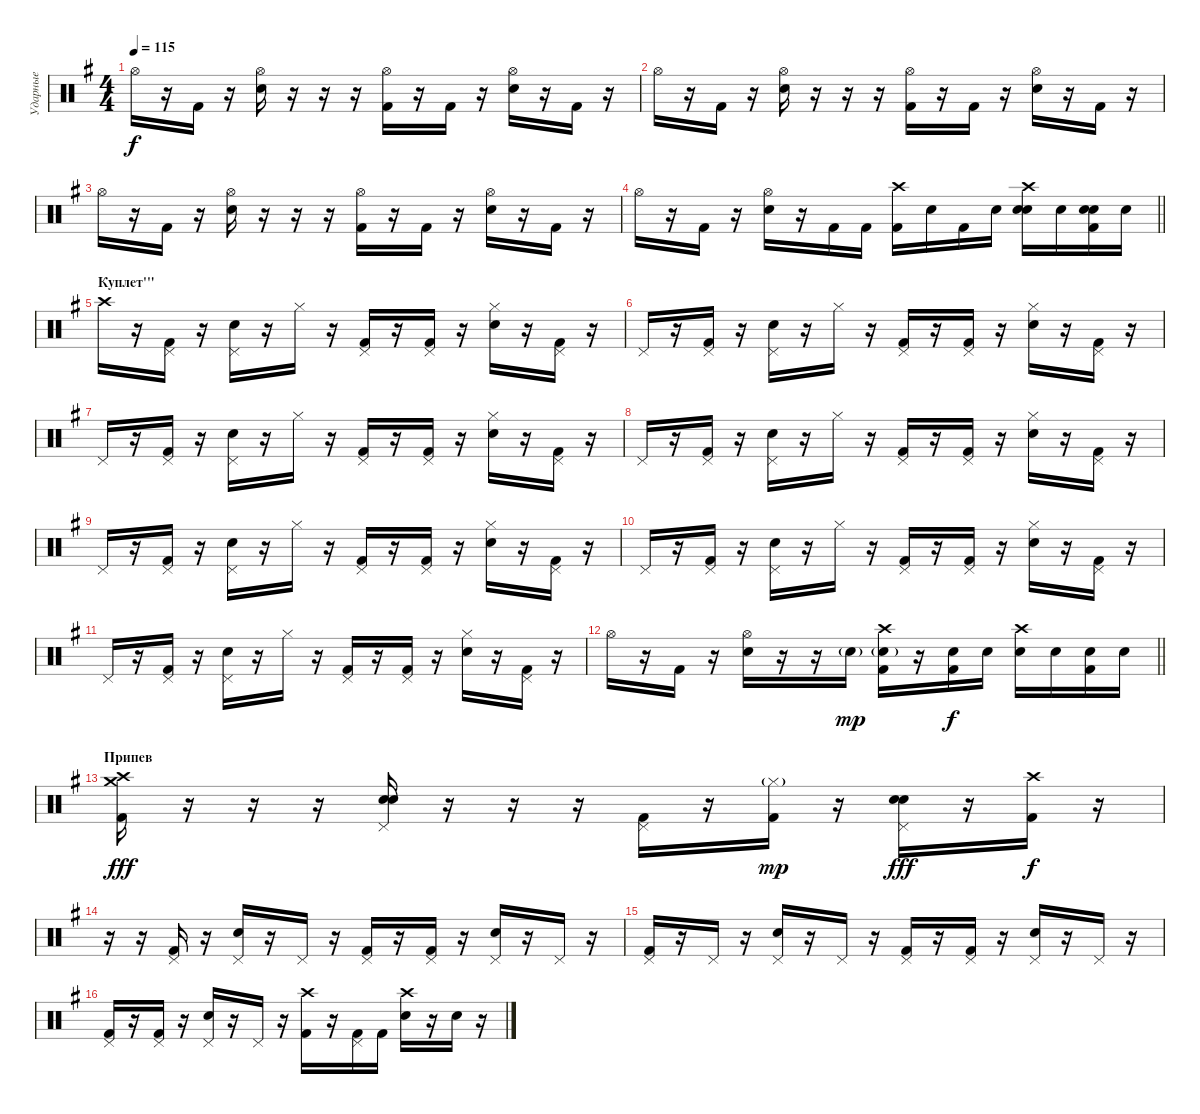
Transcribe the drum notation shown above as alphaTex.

\track ("Ударные" "Ударные") {instrument percussion}
\staff {score}
\articulation defaults
\ts (4 4)
\tempo 115
\clef neutral
\ks g "Hi-Hat (open)".16{dy f}
r.16 "Kick (hit) 2".16 r.16 ("Hi-Hat (open)" "Electric Snare (hit)").16 r.16 r.16 r.16 ("Hi-Hat (open)" "Kick (hit) 2").16 r.16 "Kick (hit) 2".16 r.16 ("Hi-Hat (open)" "Electric Snare (hit)").16 r.16 "Kick (hit) 2".16 r.16 |
"Hi-Hat (open)".16 r.16 "Kick (hit) 2".16 r.16 ("Hi-Hat (open)" "Electric Snare (hit)").16 r.16 r.16 r.16 ("Hi-Hat (open)" "Kick (hit) 2").16 r.16 "Kick (hit) 2".16 r.16 ("Hi-Hat (open)" "Electric Snare (hit)").16 r.16 "Kick (hit) 2".16 r.16 |
"Hi-Hat (open)".16 r.16 "Kick (hit) 2".16 r.16 ("Hi-Hat (open)" "Electric Snare (hit)").16 r.16 r.16 r.16 ("Hi-Hat (open)" "Kick (hit) 2").16 r.16 "Kick (hit) 2".16 r.16 ("Hi-Hat (open)" "Electric Snare (hit)").16 r.16 "Kick (hit) 2".16 r.16 |
\barLineRight lightlight "Hi-Hat (open)".16
r.16 "Kick (hit) 2".16 r.16 ("Hi-Hat (open)" "Electric Snare (hit)").16 r.16 "Kick (hit) 2".16 "Kick (hit) 2".16 ("Crash high (hit)" "Kick (hit) 2").16 "Electric Snare (hit)".16 "Kick (hit) 2".16 "Electric Snare (hit)".16 ("Crash high (hit)" "Electric Snare (hit)" "Electric Snare (hit)").16 "Electric Snare (hit)".16 ("Electric Snare (hit)" "Electric Snare (hit)" "Kick (hit) 2").16 "Electric Snare (hit)".16 |
\section ("" "Куплет'''")
"Crash high (hit)".16{volume 16 balance 8} r.16 ("Pedal Hi-Hat (hit)" "Kick (hit) 2").16 r.16 ("Pedal Hi-Hat (hit)" "Electric Snare (hit)").16 r.16 "Hi-Hat (closed)".16 r.16 ("Pedal Hi-Hat (hit)" "Kick (hit) 2").16 r.16 ("Pedal Hi-Hat (hit)" "Kick (hit) 2").16 r.16 ("Hi-Hat (closed)" "Electric Snare (hit)").16 r.16 ("Pedal Hi-Hat (hit)" "Kick (hit) 2").16 r.16 |
"Pedal Hi-Hat (hit)".16 r.16 ("Pedal Hi-Hat (hit)" "Kick (hit) 2").16 r.16 ("Pedal Hi-Hat (hit)" "Electric Snare (hit)").16 r.16 "Hi-Hat (closed)".16 r.16 ("Pedal Hi-Hat (hit)" "Kick (hit) 2").16 r.16 ("Pedal Hi-Hat (hit)" "Kick (hit) 2").16 r.16 ("Hi-Hat (closed)" "Electric Snare (hit)").16 r.16 ("Pedal Hi-Hat (hit)" "Kick (hit) 2").16 r.16 |
"Pedal Hi-Hat (hit)".16 r.16 ("Pedal Hi-Hat (hit)" "Kick (hit) 2").16 r.16 ("Pedal Hi-Hat (hit)" "Electric Snare (hit)").16 r.16 "Hi-Hat (closed)".16 r.16 ("Pedal Hi-Hat (hit)" "Kick (hit) 2").16 r.16 ("Pedal Hi-Hat (hit)" "Kick (hit) 2").16 r.16 ("Hi-Hat (closed)" "Electric Snare (hit)").16 r.16 ("Pedal Hi-Hat (hit)" "Kick (hit) 2").16 r.16 |
"Pedal Hi-Hat (hit)".16 r.16 ("Pedal Hi-Hat (hit)" "Kick (hit) 2").16 r.16 ("Pedal Hi-Hat (hit)" "Electric Snare (hit)").16 r.16 "Hi-Hat (closed)".16 r.16 ("Pedal Hi-Hat (hit)" "Kick (hit) 2").16 r.16 ("Pedal Hi-Hat (hit)" "Kick (hit) 2").16 r.16 ("Hi-Hat (closed)" "Electric Snare (hit)").16 r.16 ("Pedal Hi-Hat (hit)" "Kick (hit) 2").16 r.16 |
"Pedal Hi-Hat (hit)".16 r.16 ("Pedal Hi-Hat (hit)" "Kick (hit) 2").16 r.16 ("Pedal Hi-Hat (hit)" "Electric Snare (hit)").16 r.16 "Hi-Hat (closed)".16 r.16 ("Pedal Hi-Hat (hit)" "Kick (hit) 2").16 r.16 ("Pedal Hi-Hat (hit)" "Kick (hit) 2").16 r.16 ("Hi-Hat (closed)" "Electric Snare (hit)").16 r.16 ("Pedal Hi-Hat (hit)" "Kick (hit) 2").16 r.16 |
"Pedal Hi-Hat (hit)".16 r.16 ("Pedal Hi-Hat (hit)" "Kick (hit) 2").16 r.16 ("Pedal Hi-Hat (hit)" "Electric Snare (hit)").16 r.16 "Hi-Hat (closed)".16 r.16 ("Pedal Hi-Hat (hit)" "Kick (hit) 2").16 r.16 ("Pedal Hi-Hat (hit)" "Kick (hit) 2").16 r.16 ("Hi-Hat (closed)" "Electric Snare (hit)").16 r.16 ("Pedal Hi-Hat (hit)" "Kick (hit) 2").16 r.16 |
"Pedal Hi-Hat (hit)".16 r.16 ("Pedal Hi-Hat (hit)" "Kick (hit) 2").16 r.16 ("Pedal Hi-Hat (hit)" "Electric Snare (hit)").16 r.16 "Hi-Hat (closed)".16 r.16 ("Pedal Hi-Hat (hit)" "Kick (hit) 2").16 r.16 ("Pedal Hi-Hat (hit)" "Kick (hit) 2").16 r.16 ("Hi-Hat (closed)" "Electric Snare (hit)").16 r.16 ("Pedal Hi-Hat (hit)" "Kick (hit) 2").16 r.16 |
\barLineRight lightlight "Hi-Hat (open)".16
r.16 "Kick (hit) 2".16 r.16 ("Hi-Hat (open)" "Electric Snare (hit)").16 r.16 r.16 "Electric Snare (hit)"{g}.16{dy mp} ("Crash high (hit)" "Electric Snare (hit)"{g} "Kick (hit) 2").16 r.16 ("Electric Snare (hit)" "Kick (hit) 2").16{dy f} "Electric Snare (hit)".16 ("Crash high (hit)" "Electric Snare (hit)").16 "Electric Snare (hit)".16 ("Electric Snare (hit)" "Kick (hit) 2").16 "Electric Snare (hit)".16 |
\section ("" "Припев")
("Crash high (hit)" "Crash medium (hit)" "Kick (hit) 2").16{dy fff volume 16} r.16 r.16 r.16 ("Pedal Hi-Hat (hit)" "Electric Snare (hit)" "Electric Snare (hit)").16 r.16 r.16 r.16 ("Pedal Hi-Hat (hit)" "Kick (hit) 2").16 r.16 ("Hi-Hat (closed)"{g} "Kick (hit) 2").16{dy mp} r.16 ("Pedal Hi-Hat (hit)" "Electric Snare (hit)" "Electric Snare (hit)").16{dy fff} r.16 ("Crash high (hit)" "Kick (hit) 2").16{dy f} r.16 |
r.16 r.16 ("Pedal Hi-Hat (hit)" "Kick (hit) 2").16 r.16 ("Pedal Hi-Hat (hit)" "Electric Snare (hit)").16 r.16 "Pedal Hi-Hat (hit)".16 r.16 ("Pedal Hi-Hat (hit)" "Kick (hit) 2").16 r.16 ("Pedal Hi-Hat (hit)" "Kick (hit) 2").16 r.16 ("Pedal Hi-Hat (hit)" "Electric Snare (hit)").16 r.16 "Pedal Hi-Hat (hit)".16 r.16 |
("Pedal Hi-Hat (hit)" "Kick (hit) 2").16 r.16 "Pedal Hi-Hat (hit)".16 r.16 ("Pedal Hi-Hat (hit)" "Electric Snare (hit)").16 r.16 "Pedal Hi-Hat (hit)".16 r.16 ("Pedal Hi-Hat (hit)" "Kick (hit) 2").16 r.16 ("Pedal Hi-Hat (hit)" "Kick (hit) 2").16 r.16 ("Pedal Hi-Hat (hit)" "Electric Snare (hit)").16 r.16 "Pedal Hi-Hat (hit)".16 r.16 |
("Pedal Hi-Hat (hit)" "Kick (hit) 2").16 r.16 ("Pedal Hi-Hat (hit)" "Kick (hit) 2").16 r.16 ("Pedal Hi-Hat (hit)" "Electric Snare (hit)").16 r.16 "Pedal Hi-Hat (hit)".16 r.16 ("Crash high (hit)" "Kick (hit) 2").16 r.16 ("Pedal Hi-Hat (hit)" "Kick (hit) 2").16 "Kick (hit) 2".16 ("Crash high (hit)" "Electric Snare (hit)").16 r.16 "Electric Snare (hit)".16 r.16
